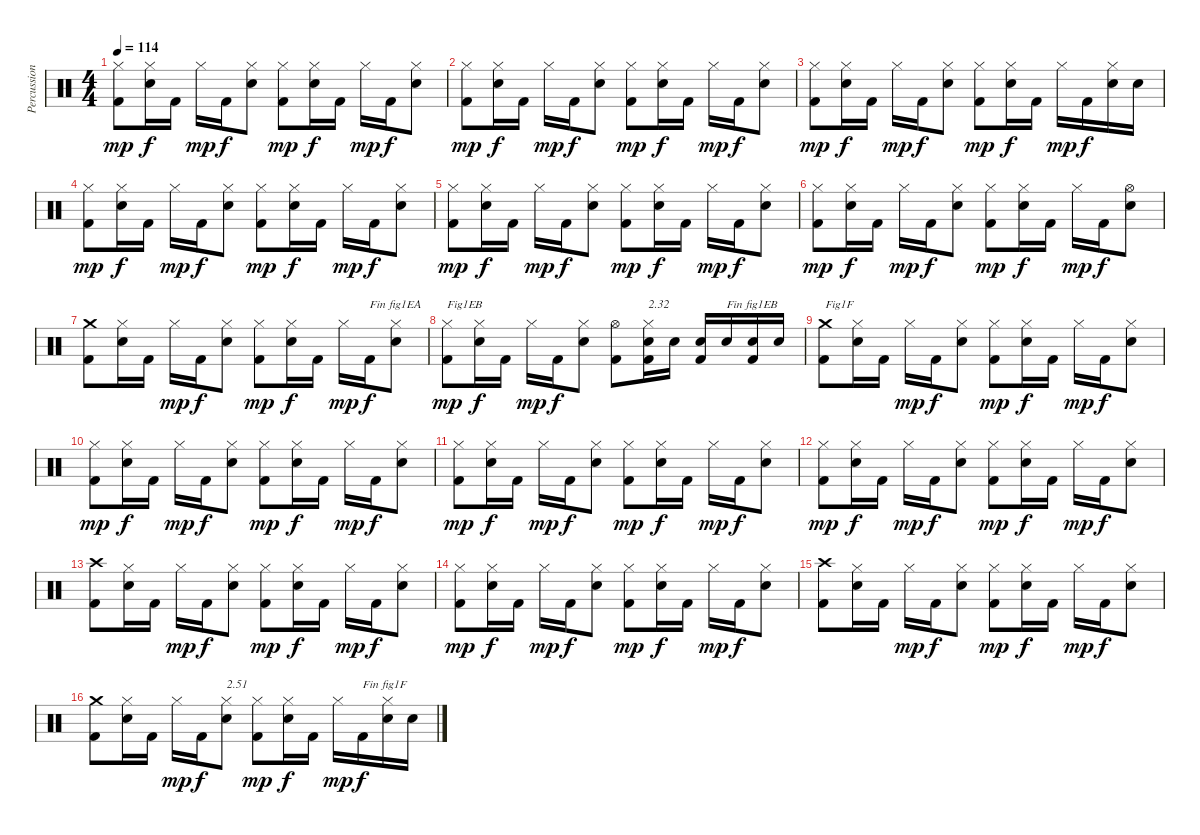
\track ("Percussions" "Percussion") {instrument percussion}
\staff {score}
\articulation defaults
\ts (4 4)
\tempo 114
\clef neutral
\ks c
("Kick (hit) 2" "Hi-Hat (closed)").8{dy mp} ("Electric Snare (hit)" "Hi-Hat (closed)").16{dy f} "Kick (hit) 2".16 "Hi-Hat (closed)".16{dy mp} "Kick (hit) 2".16{dy f} ("Electric Snare (hit)" "Hi-Hat (closed)").8 ("Kick (hit) 2" "Hi-Hat (closed)").8{dy mp} ("Electric Snare (hit)" "Hi-Hat (closed)").16{dy f} "Kick (hit) 2".16 "Hi-Hat (closed)".16{dy mp} "Kick (hit) 2".16{dy f} ("Electric Snare (hit)" "Hi-Hat (closed)").8 |
("Kick (hit) 2" "Hi-Hat (closed)").8{dy mp} ("Electric Snare (hit)" "Hi-Hat (closed)").16{dy f} "Kick (hit) 2".16 "Hi-Hat (closed)".16{dy mp} "Kick (hit) 2".16{dy f} ("Electric Snare (hit)" "Hi-Hat (closed)").8 ("Kick (hit) 2" "Hi-Hat (closed)").8{dy mp} ("Electric Snare (hit)" "Hi-Hat (closed)").16{dy f} "Kick (hit) 2".16 "Hi-Hat (closed)".16{dy mp} "Kick (hit) 2".16{dy f} ("Electric Snare (hit)" "Hi-Hat (closed)").8 |
("Kick (hit) 2" "Hi-Hat (closed)").8{dy mp} ("Electric Snare (hit)" "Hi-Hat (closed)").16{dy f} "Kick (hit) 2".16 "Hi-Hat (closed)".16{dy mp} "Kick (hit) 2".16{dy f} ("Electric Snare (hit)" "Hi-Hat (closed)").8 ("Kick (hit) 2" "Hi-Hat (closed)").8{dy mp} ("Electric Snare (hit)" "Hi-Hat (closed)").16{dy f} "Kick (hit) 2".16 "Hi-Hat (closed)".16{dy mp} "Kick (hit) 2".16{dy f} ("Electric Snare (hit)" "Hi-Hat (closed)").16 "Electric Snare (hit)".16 |
("Kick (hit) 2" "Hi-Hat (closed)").8{dy mp} ("Electric Snare (hit)" "Hi-Hat (closed)").16{dy f} "Kick (hit) 2".16 "Hi-Hat (closed)".16{dy mp} "Kick (hit) 2".16{dy f} ("Electric Snare (hit)" "Hi-Hat (closed)").8 ("Kick (hit) 2" "Hi-Hat (closed)").8{dy mp} ("Electric Snare (hit)" "Hi-Hat (closed)").16{dy f} "Kick (hit) 2".16 "Hi-Hat (closed)".16{dy mp} "Kick (hit) 2".16{dy f} ("Electric Snare (hit)" "Hi-Hat (closed)").8 |
("Kick (hit) 2" "Hi-Hat (closed)").8{dy mp} ("Electric Snare (hit)" "Hi-Hat (closed)").16{dy f} "Kick (hit) 2".16 "Hi-Hat (closed)".16{dy mp} "Kick (hit) 2".16{dy f} ("Electric Snare (hit)" "Hi-Hat (closed)").8 ("Kick (hit) 2" "Hi-Hat (closed)").8{dy mp} ("Electric Snare (hit)" "Hi-Hat (closed)").16{dy f} "Kick (hit) 2".16 "Hi-Hat (closed)".16{dy mp} "Kick (hit) 2".16{dy f} ("Electric Snare (hit)" "Hi-Hat (closed)").8 |
("Kick (hit) 2" "Hi-Hat (closed)").8{dy mp} ("Electric Snare (hit)" "Hi-Hat (closed)").16{dy f} "Kick (hit) 2".16 "Hi-Hat (closed)".16{dy mp} "Kick (hit) 2".16{dy f} ("Electric Snare (hit)" "Hi-Hat (closed)").8 ("Kick (hit) 2" "Hi-Hat (closed)").8{dy mp} ("Electric Snare (hit)" "Hi-Hat (closed)").16{dy f} "Kick (hit) 2".16 "Hi-Hat (closed)".16{dy mp} "Kick (hit) 2".16{dy f} ("Electric Snare (hit)" "Hi-Hat (open)").8 |
("Kick (hit) 2" "Crash medium (hit)").8 ("Electric Snare (hit)" "Hi-Hat (closed)").16 "Kick (hit) 2".16 "Hi-Hat (closed)".16{dy mp} "Kick (hit) 2".16{dy f} ("Electric Snare (hit)" "Hi-Hat (closed)").8 ("Kick (hit) 2" "Hi-Hat (closed)").8{dy mp} ("Electric Snare (hit)" "Hi-Hat (closed)").16{dy f} "Kick (hit) 2".16 "Hi-Hat (closed)".16{dy mp} "Kick (hit) 2".16{txt "Fin fig1EA" dy f} ("Electric Snare (hit)" "Hi-Hat (closed)").8 |
("Kick (hit) 2" "Hi-Hat (closed)").8{txt "Fig1EB" dy mp} ("Electric Snare (hit)" "Hi-Hat (closed)").16{dy f} "Kick (hit) 2".16 "Hi-Hat (closed)".16{dy mp} "Kick (hit) 2".16{dy f} ("Electric Snare (hit)" "Hi-Hat (closed)").8 ("Kick (hit) 2" "Hi-Hat (open)").8 ("Kick (hit) 2" "Electric Snare (hit)" "Hi-Hat (closed)").16{txt "2.32"} "Electric Snare (hit)".16 ("Kick (hit) 2" "Electric Snare (hit)").16 "Electric Snare (hit)".16{txt "Fin fig1EB"} ("Kick (hit) 2" "Electric Snare (hit)").16 "Electric Snare (hit)".16 |
("Kick (hit) 2" "Crash medium (hit)").8{txt "Fig1F"} ("Electric Snare (hit)" "Hi-Hat (closed)").16 "Kick (hit) 2".16 "Hi-Hat (closed)".16{dy mp} "Kick (hit) 2".16{dy f} ("Electric Snare (hit)" "Hi-Hat (closed)").8 ("Kick (hit) 2" "Hi-Hat (closed)").8{dy mp} ("Electric Snare (hit)" "Hi-Hat (closed)").16{dy f} "Kick (hit) 2".16 "Hi-Hat (closed)".16{dy mp} "Kick (hit) 2".16{dy f} ("Electric Snare (hit)" "Hi-Hat (closed)").8 |
("Kick (hit) 2" "Hi-Hat (closed)").8{dy mp} ("Electric Snare (hit)" "Hi-Hat (closed)").16{dy f} "Kick (hit) 2".16 "Hi-Hat (closed)".16{dy mp} "Kick (hit) 2".16{dy f} ("Electric Snare (hit)" "Hi-Hat (closed)").8 ("Kick (hit) 2" "Hi-Hat (closed)").8{dy mp} ("Electric Snare (hit)" "Hi-Hat (closed)").16{dy f} "Kick (hit) 2".16 "Hi-Hat (closed)".16{dy mp} "Kick (hit) 2".16{dy f} ("Electric Snare (hit)" "Hi-Hat (closed)").8 |
("Kick (hit) 2" "Hi-Hat (closed)").8{dy mp} ("Electric Snare (hit)" "Hi-Hat (closed)").16{dy f} "Kick (hit) 2".16 "Hi-Hat (closed)".16{dy mp} "Kick (hit) 2".16{dy f} ("Electric Snare (hit)" "Hi-Hat (closed)").8 ("Kick (hit) 2" "Hi-Hat (closed)").8{dy mp} ("Electric Snare (hit)" "Hi-Hat (closed)").16{dy f} "Kick (hit) 2".16 "Hi-Hat (closed)".16{dy mp} "Kick (hit) 2".16{dy f} ("Electric Snare (hit)" "Hi-Hat (closed)").8 |
("Kick (hit) 2" "Hi-Hat (closed)").8{dy mp} ("Electric Snare (hit)" "Hi-Hat (closed)").16{dy f} "Kick (hit) 2".16 "Hi-Hat (closed)".16{dy mp} "Kick (hit) 2".16{dy f} ("Electric Snare (hit)" "Hi-Hat (closed)").8 ("Kick (hit) 2" "Hi-Hat (closed)").8{dy mp} ("Electric Snare (hit)" "Hi-Hat (closed)").16{dy f} "Kick (hit) 2".16 "Hi-Hat (closed)".16{dy mp} "Kick (hit) 2".16{dy f} ("Electric Snare (hit)" "Hi-Hat (closed)").8 |
("Kick (hit) 2" "Crash high (hit)").8 ("Electric Snare (hit)" "Hi-Hat (closed)").16 "Kick (hit) 2".16 "Hi-Hat (closed)".16{dy mp} "Kick (hit) 2".16{dy f} ("Electric Snare (hit)" "Hi-Hat (closed)").8 ("Kick (hit) 2" "Hi-Hat (closed)").8{dy mp} ("Electric Snare (hit)" "Hi-Hat (closed)").16{dy f} "Kick (hit) 2".16 "Hi-Hat (closed)".16{dy mp} "Kick (hit) 2".16{dy f} ("Electric Snare (hit)" "Hi-Hat (closed)").8 |
("Kick (hit) 2" "Hi-Hat (closed)").8{dy mp} ("Electric Snare (hit)" "Hi-Hat (closed)").16{dy f} "Kick (hit) 2".16 "Hi-Hat (closed)".16{dy mp} "Kick (hit) 2".16{dy f} ("Electric Snare (hit)" "Hi-Hat (closed)").8 ("Kick (hit) 2" "Hi-Hat (closed)").8{dy mp} ("Electric Snare (hit)" "Hi-Hat (closed)").16{dy f} "Kick (hit) 2".16 "Hi-Hat (closed)".16{dy mp} "Kick (hit) 2".16{dy f} ("Electric Snare (hit)" "Hi-Hat (closed)").8 |
("Kick (hit) 2" "Crash high (hit)").8 ("Electric Snare (hit)" "Hi-Hat (closed)").16 "Kick (hit) 2".16 "Hi-Hat (closed)".16{dy mp} "Kick (hit) 2".16{dy f} ("Electric Snare (hit)" "Hi-Hat (closed)").8 ("Kick (hit) 2" "Hi-Hat (closed)").8{dy mp} ("Electric Snare (hit)" "Hi-Hat (closed)").16{dy f} "Kick (hit) 2".16 "Hi-Hat (closed)".16{dy mp} "Kick (hit) 2".16{dy f} ("Electric Snare (hit)" "Hi-Hat (closed)").8 |
("Kick (hit) 2" "Crash medium (hit)").8 ("Electric Snare (hit)" "Hi-Hat (closed)").16 "Kick (hit) 2".16 "Hi-Hat (closed)".16{dy mp} "Kick (hit) 2".16{dy f} ("Electric Snare (hit)" "Hi-Hat (closed)").8{txt "2.51"} ("Kick (hit) 2" "Hi-Hat (closed)").8{dy mp} ("Electric Snare (hit)" "Hi-Hat (closed)").16{dy f} "Kick (hit) 2".16 "Hi-Hat (closed)".16{dy mp} "Kick (hit) 2".16{txt "Fin fig1F" dy f} ("Electric Snare (hit)" "Hi-Hat (closed)").16 "Electric Snare (hit)".16
